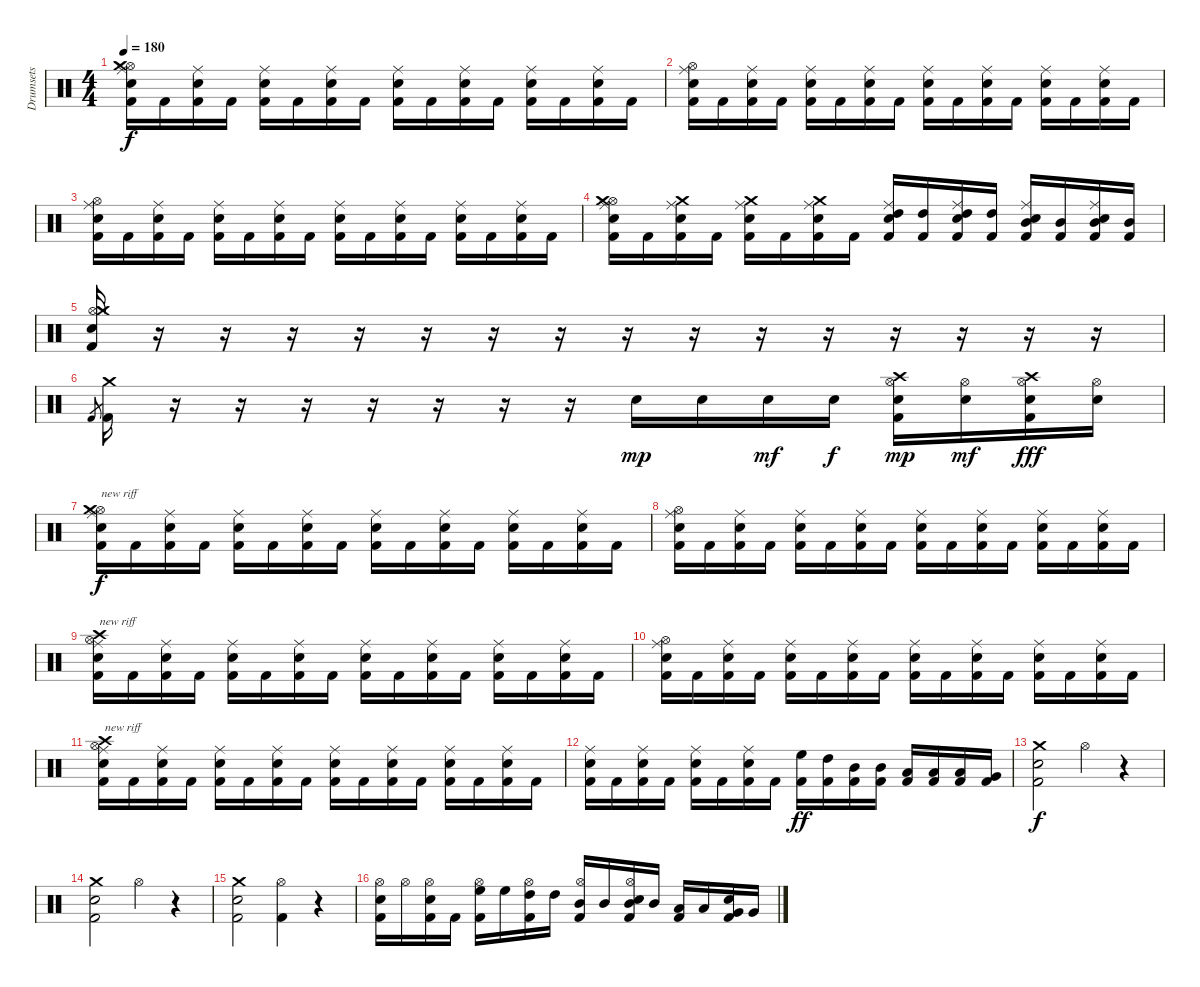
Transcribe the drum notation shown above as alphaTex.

\track ("Drumsets" "Drumsets") {instrument percussion}
\staff {score}
\articulation defaults
\ts (4 4)
\tempo 180
\clef neutral
\ks c
("Kick (hit) 2" "Snare (hit) 2" "Hi-Hat (open)" "Crash medium (hit)" "Ride (middle)").16{dy f} "Kick (hit) 2".16 ("Kick (hit) 2" "Snare (hit) 2" "Ride (middle)").16 "Kick (hit) 2".16 ("Kick (hit) 2" "Snare (hit) 2" "Ride (middle)").16 "Kick (hit) 2".16 ("Kick (hit) 2" "Snare (hit) 2" "Ride (middle)").16 "Kick (hit) 2".16 ("Kick (hit) 2" "Snare (hit) 2" "Ride (middle)").16 "Kick (hit) 2".16 ("Kick (hit) 2" "Snare (hit) 2" "Ride (middle)").16 "Kick (hit) 2".16 ("Kick (hit) 2" "Snare (hit) 2" "Ride (middle)").16 "Kick (hit) 2".16 ("Kick (hit) 2" "Snare (hit) 2" "Ride (middle)").16 "Kick (hit) 2".16 |
("Kick (hit) 2" "Snare (hit) 2" "Hi-Hat (open)" "Ride (middle)").16 "Kick (hit) 2".16 ("Kick (hit) 2" "Snare (hit) 2" "Ride (middle)").16 "Kick (hit) 2".16 ("Kick (hit) 2" "Snare (hit) 2" "Ride (middle)").16 "Kick (hit) 2".16 ("Kick (hit) 2" "Snare (hit) 2" "Ride (middle)").16 "Kick (hit) 2".16 ("Kick (hit) 2" "Snare (hit) 2" "Ride (middle)").16 "Kick (hit) 2".16 ("Kick (hit) 2" "Snare (hit) 2" "Ride (middle)").16 "Kick (hit) 2".16 ("Kick (hit) 2" "Snare (hit) 2" "Ride (middle)").16 "Kick (hit) 2".16 ("Kick (hit) 2" "Snare (hit) 2" "Ride (middle)").16 "Kick (hit) 2".16 |
("Kick (hit) 2" "Snare (hit) 2" "Hi-Hat (open)" "Ride (middle)").16 "Kick (hit) 2".16 ("Kick (hit) 2" "Snare (hit) 2" "Ride (middle)").16 "Kick (hit) 2".16 ("Kick (hit) 2" "Snare (hit) 2" "Ride (middle)").16 "Kick (hit) 2".16 ("Kick (hit) 2" "Snare (hit) 2" "Ride (middle)").16 "Kick (hit) 2".16 ("Kick (hit) 2" "Snare (hit) 2" "Ride (middle)").16 "Kick (hit) 2".16 ("Kick (hit) 2" "Snare (hit) 2" "Ride (middle)").16 "Kick (hit) 2".16 ("Kick (hit) 2" "Snare (hit) 2" "Ride (middle)").16 "Kick (hit) 2".16 ("Kick (hit) 2" "Snare (hit) 2" "Ride (middle)").16 "Kick (hit) 2".16 |
("Kick (hit) 2" "Snare (hit) 2" "Hi-Hat (open)" "Crash medium (hit)" "Ride (middle)").16 "Kick (hit) 2".16 ("Kick (hit) 2" "Snare (hit) 2" "Crash medium (hit)" "Ride (middle)").16 "Kick (hit) 2".16 ("Kick (hit) 2" "Snare (hit) 2" "Crash medium (hit)" "Ride (middle)").16 "Kick (hit) 2".16 ("Kick (hit) 2" "Snare (hit) 2" "Crash medium (hit)" "Ride (middle)").16 "Kick (hit) 2".16 ("Kick (hit) 2" "Snare (hit) 2" "High Tom (hit)" "Ride (middle)").16 ("Kick (hit) 2" "High Tom (hit)").16 ("Kick (hit) 2" "Snare (hit) 2" "High Tom (hit)" "Ride (middle)").16 ("Kick (hit) 2" "High Tom (hit)").16 ("Kick (hit) 2" "Snare (hit) 2" "Mid Tom (hit)" "Ride (middle)").16 ("Kick (hit) 2" "Mid Tom (hit)").16 ("Kick (hit) 2" "Snare (hit) 2" "Mid Tom (hit)" "Ride (middle)").16 ("Kick (hit) 2" "Mid Tom (hit)").16 |
("Kick (hit) 2" "Hi-Hat (open)" "Electric Snare (hit)" "Crash medium (hit)").16 r.16 r.16 r.16 r.16 r.16 r.16 r.16 r.16 r.16 r.16 r.16 r.16 r.16 r.16 r.16 |
"Kick (hit) 2".8{gr} ("Kick (hit) 2" "Crash medium (hit)").16 r.16 r.16 r.16 r.16 r.16 r.16 r.16 "Electric Snare (hit)".16{dy mp} "Electric Snare (hit)".16 "Electric Snare (hit)".16{dy mf} "Electric Snare (hit)".16{dy f} ("Crash high (hit)" "Electric Snare (hit)" "Hi-Hat (open)" "Kick (hit) 2").16{dy mp} ("Electric Snare (hit)" "Hi-Hat (open)").16{dy mf} ("Crash high (hit)" "Electric Snare (hit)" "Hi-Hat (open)" "Kick (hit) 2").16{dy fff} ("Electric Snare (hit)" "Hi-Hat (open)").16 |
("Kick (hit) 2" "Snare (hit) 2" "Hi-Hat (open)" "Crash medium (hit)" "Ride (middle)").16{txt "new riff" dy f} "Kick (hit) 2".16 ("Kick (hit) 2" "Snare (hit) 2" "Ride (middle)").16 "Kick (hit) 2".16 ("Kick (hit) 2" "Snare (hit) 2" "Ride (middle)").16 "Kick (hit) 2".16 ("Kick (hit) 2" "Snare (hit) 2" "Ride (middle)").16 "Kick (hit) 2".16 ("Kick (hit) 2" "Snare (hit) 2" "Ride (middle)").16 "Kick (hit) 2".16 ("Kick (hit) 2" "Snare (hit) 2" "Ride (middle)").16 "Kick (hit) 2".16 ("Kick (hit) 2" "Snare (hit) 2" "Ride (middle)").16 "Kick (hit) 2".16 ("Kick (hit) 2" "Snare (hit) 2" "Ride (middle)").16 "Kick (hit) 2".16 |
("Kick (hit) 2" "Snare (hit) 2" "Hi-Hat (open)" "Ride (middle)").16 "Kick (hit) 2".16 ("Kick (hit) 2" "Snare (hit) 2" "Ride (middle)").16 "Kick (hit) 2".16 ("Kick (hit) 2" "Snare (hit) 2" "Ride (middle)").16 "Kick (hit) 2".16 ("Kick (hit) 2" "Snare (hit) 2" "Ride (middle)").16 "Kick (hit) 2".16 ("Kick (hit) 2" "Snare (hit) 2" "Ride (middle)").16 "Kick (hit) 2".16 ("Kick (hit) 2" "Snare (hit) 2" "Ride (middle)").16 "Kick (hit) 2".16 ("Kick (hit) 2" "Snare (hit) 2" "Ride (middle)").16 "Kick (hit) 2".16 ("Kick (hit) 2" "Snare (hit) 2" "Ride (middle)").16 "Kick (hit) 2".16 |
("Kick (hit) 2" "Snare (hit) 2" "Hi-Hat (open)" "Crash high (hit)" "Ride (middle)").16{txt "new riff"} "Kick (hit) 2".16 ("Kick (hit) 2" "Snare (hit) 2" "Ride (middle)").16 "Kick (hit) 2".16 ("Kick (hit) 2" "Snare (hit) 2" "Ride (middle)").16 "Kick (hit) 2".16 ("Kick (hit) 2" "Snare (hit) 2" "Ride (middle)").16 "Kick (hit) 2".16 ("Kick (hit) 2" "Snare (hit) 2" "Ride (middle)").16 "Kick (hit) 2".16 ("Kick (hit) 2" "Snare (hit) 2" "Ride (middle)").16 "Kick (hit) 2".16 ("Kick (hit) 2" "Snare (hit) 2" "Ride (middle)").16 "Kick (hit) 2".16 ("Kick (hit) 2" "Snare (hit) 2" "Ride (middle)").16 "Kick (hit) 2".16 |
("Kick (hit) 2" "Snare (hit) 2" "Hi-Hat (open)" "Ride (middle)").16 "Kick (hit) 2".16 ("Kick (hit) 2" "Snare (hit) 2" "Ride (middle)").16 "Kick (hit) 2".16 ("Kick (hit) 2" "Snare (hit) 2" "Ride (middle)").16 "Kick (hit) 2".16 ("Kick (hit) 2" "Snare (hit) 2" "Ride (middle)").16 "Kick (hit) 2".16 ("Kick (hit) 2" "Snare (hit) 2" "Ride (middle)").16 "Kick (hit) 2".16 ("Kick (hit) 2" "Snare (hit) 2" "Ride (middle)").16 "Kick (hit) 2".16 ("Kick (hit) 2" "Snare (hit) 2" "Ride (middle)").16 "Kick (hit) 2".16 ("Kick (hit) 2" "Snare (hit) 2" "Ride (middle)").16 "Kick (hit) 2".16 |
("Kick (hit) 2" "Snare (hit) 2" "Hi-Hat (open)" "Crash high (hit)" "Ride (middle)").16{txt "new riff"} "Kick (hit) 2".16 ("Kick (hit) 2" "Snare (hit) 2" "Ride (middle)").16 "Kick (hit) 2".16 ("Kick (hit) 2" "Snare (hit) 2" "Ride (middle)").16 "Kick (hit) 2".16 ("Kick (hit) 2" "Snare (hit) 2" "Ride (middle)").16 "Kick (hit) 2".16 ("Kick (hit) 2" "Snare (hit) 2" "Ride (middle)").16 "Kick (hit) 2".16 ("Kick (hit) 2" "Snare (hit) 2" "Ride (middle)").16 "Kick (hit) 2".16 ("Kick (hit) 2" "Snare (hit) 2" "Ride (middle)").16 "Kick (hit) 2".16 ("Kick (hit) 2" "Snare (hit) 2" "Ride (middle)").16 "Kick (hit) 2".16 |
("Kick (hit) 2" "Snare (hit) 2" "Ride (middle)").16 "Kick (hit) 2".16 ("Kick (hit) 2" "Snare (hit) 2" "Ride (middle)").16 "Kick (hit) 2".16 ("Kick (hit) 2" "Snare (hit) 2" "Ride (middle)").16 "Kick (hit) 2".16 ("Kick (hit) 2" "Snare (hit) 2" "Ride (middle)").16 "Kick (hit) 2".16 ("Kick (hit) 2" "High Floor Tom (hit)").16{dy ff} ("Kick (hit) 2" "High Tom (hit)").16 ("Kick (hit) 2" "Mid Tom (hit)").16 ("Kick (hit) 2" "Mid Tom (hit)").16 ("Kick (hit) 2" "Low Tom (hit)").16 ("Kick (hit) 2" "Low Tom (hit)").16 ("Kick (hit) 2" "Low Tom (hit)").16 ("Kick (hit) 2" "Very Low Tom (hit)").16 |
("Kick (hit) 2" "Snare (hit) 2" "Crash medium (hit)").2{dy f} "Hi-Hat (open)".4 r.4 |
("Kick (hit) 2" "Snare (hit) 2" "Crash medium (hit)").2 "Hi-Hat (open)".4 r.4 |
("Kick (hit) 2" "Snare (hit) 2" "Crash medium (hit)").2 ("Hi-Hat (open)" "Kick (hit) 2").4 r.4 |
("Kick (hit) 2" "Snare (hit) 2" "Hi-Hat (open)").16 "Hi-Hat (open)".16 ("Kick (hit) 2" "Snare (hit) 2" "Hi-Hat (open)").16 "Kick (hit) 2".16 ("Kick (hit) 2" "Hi-Hat (open)" "High Floor Tom (hit)").16 "High Floor Tom (hit)".16 ("Kick (hit) 2" "Hi-Hat (open)" "High Tom (hit)").16 "High Tom (hit)".16 ("Kick (hit) 2" "Hi-Hat (open)" "Mid Tom (hit)").16 "Mid Tom (hit)".16 ("Kick (hit) 2" "Snare (hit) 2" "Hi-Hat (open)" "Mid Tom (hit)").16 "Mid Tom (hit)".16 ("Kick (hit) 2" "Low Tom (hit)").16 "Low Tom (hit)".16 ("Kick (hit) 2" "Snare (hit) 2" "Very Low Tom (hit)").16 "Very Low Tom (hit)".16
